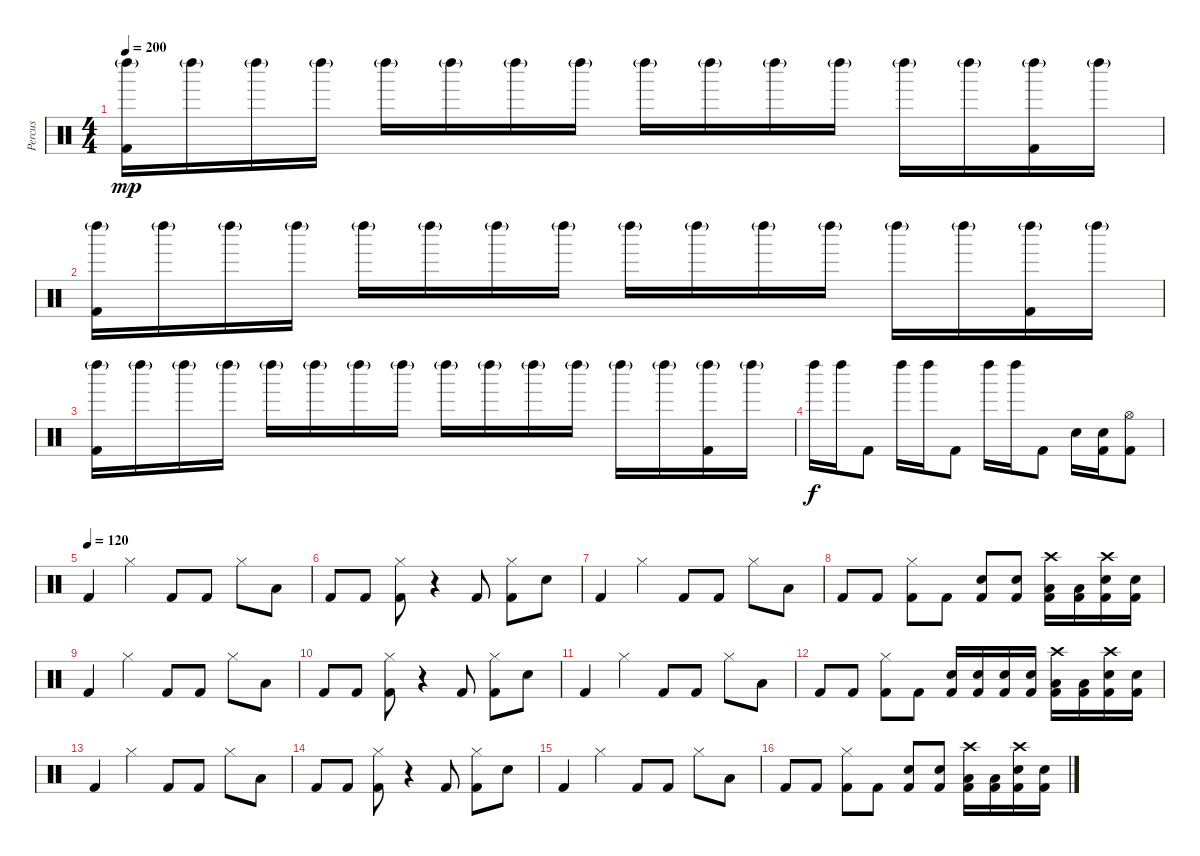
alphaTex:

\track ("Percus" "Percus") {instrument percussion}
\staff {score}
\articulation defaults
\ts (4 4)
\tempo 200
\tempo 120
\tempo 200
\clef neutral
\ks c
("Left Maraca (hit)"{g} "Kick (hit) 2").16{dy mp} "Left Maraca (hit)"{g}.16 "Left Maraca (hit)"{g}.16 "Left Maraca (hit)"{g}.16 "Left Maraca (hit)"{g}.16 "Left Maraca (hit)"{g}.16 "Left Maraca (hit)"{g}.16 "Left Maraca (hit)"{g}.16 "Left Maraca (hit)"{g}.16 "Left Maraca (hit)"{g}.16 "Left Maraca (hit)"{g}.16 "Left Maraca (hit)"{g}.16 "Left Maraca (hit)"{g}.16 "Left Maraca (hit)"{g}.16 ("Left Maraca (hit)"{g} "Kick (hit) 2").16 "Left Maraca (hit)"{g}.16 |
("Left Maraca (hit)"{g} "Kick (hit) 2").16 "Left Maraca (hit)"{g}.16 "Left Maraca (hit)"{g}.16 "Left Maraca (hit)"{g}.16 "Left Maraca (hit)"{g}.16 "Left Maraca (hit)"{g}.16 "Left Maraca (hit)"{g}.16 "Left Maraca (hit)"{g}.16 "Left Maraca (hit)"{g}.16 "Left Maraca (hit)"{g}.16 "Left Maraca (hit)"{g}.16 "Left Maraca (hit)"{g}.16 "Left Maraca (hit)"{g}.16 "Left Maraca (hit)"{g}.16 ("Left Maraca (hit)"{g} "Kick (hit) 2").16 "Left Maraca (hit)"{g}.16 |
("Left Maraca (hit)"{g} "Kick (hit) 2").16 "Left Maraca (hit)"{g}.16 "Left Maraca (hit)"{g}.16 "Left Maraca (hit)"{g}.16 "Left Maraca (hit)"{g}.16 "Left Maraca (hit)"{g}.16 "Left Maraca (hit)"{g}.16 "Left Maraca (hit)"{g}.16 "Left Maraca (hit)"{g}.16 "Left Maraca (hit)"{g}.16 "Left Maraca (hit)"{g}.16 "Left Maraca (hit)"{g}.16 "Left Maraca (hit)"{g}.16 "Left Maraca (hit)"{g}.16 ("Left Maraca (hit)"{g} "Kick (hit) 2").16 "Left Maraca (hit)"{g}.16 |
"Left Maraca (hit)".16{dy f} "Left Maraca (hit)".16 "Kick (hit) 2".8 "Left Maraca (hit)".16 "Left Maraca (hit)".16 "Kick (hit) 2".8 "Left Maraca (hit)".16 "Left Maraca (hit)".16 "Kick (hit) 2".8 "Hand Clap (hit)".16 ("Hand Clap (hit)" "Kick (hit) 2").16 ("Hi-Hat (open)" "Kick (hit) 2").8 |
\tempo (120)
"Kick (hit) 2".4 "Hi-Hat (closed)".4 "Kick (hit) 2".8 "Kick (hit) 2".8 "Hi-Hat (closed)".8 "Low Tom (hit)".8 |
"Kick (hit) 2".8 "Kick (hit) 2".8 ("Hi-Hat (closed)" "Kick (hit) 2").8 r.4 "Kick (hit) 2".8 ("Hi-Hat (closed)" "Kick (hit) 2").8 "Snare (hit) 2".8 |
"Kick (hit) 2".4 "Hi-Hat (closed)".4 "Kick (hit) 2".8 "Kick (hit) 2".8 "Hi-Hat (closed)".8 "Low Tom (hit)".8 |
"Kick (hit) 2".8 "Kick (hit) 2".8 ("Hi-Hat (closed)" "Kick (hit) 2").8 "Kick (hit) 2".8 ("Snare (hit) 2" "Kick (hit) 2").8 ("Snare (hit) 2" "Kick (hit) 2").8 ("Crash high (hit)" "Low Tom (hit)" "Kick (hit) 2").16 ("Low Tom (hit)" "Kick (hit) 2").16 ("Crash high (hit)" "Snare (hit) 2" "Kick (hit) 2").16 ("Snare (hit) 2" "Kick (hit) 2").16 |
"Kick (hit) 2".4 "Hi-Hat (closed)".4 "Kick (hit) 2".8 "Kick (hit) 2".8 "Hi-Hat (closed)".8 "Low Tom (hit)".8 |
"Kick (hit) 2".8 "Kick (hit) 2".8 ("Hi-Hat (closed)" "Kick (hit) 2").8 r.4 "Kick (hit) 2".8 ("Hi-Hat (closed)" "Kick (hit) 2").8 "Snare (hit) 2".8 |
"Kick (hit) 2".4 "Hi-Hat (closed)".4 "Kick (hit) 2".8 "Kick (hit) 2".8 "Hi-Hat (closed)".8 "Low Tom (hit)".8 |
"Kick (hit) 2".8 "Kick (hit) 2".8 ("Hi-Hat (closed)" "Kick (hit) 2").8 "Kick (hit) 2".8 ("Snare (hit) 2" "Kick (hit) 2").16 ("Snare (hit) 2" "Kick (hit) 2").16 ("Snare (hit) 2" "Kick (hit) 2").16 ("Snare (hit) 2" "Kick (hit) 2").16 ("Crash high (hit)" "Low Tom (hit)" "Kick (hit) 2").16 ("Low Tom (hit)" "Kick (hit) 2").16 ("Crash high (hit)" "Snare (hit) 2" "Kick (hit) 2").16 ("Snare (hit) 2" "Kick (hit) 2").16 |
"Kick (hit) 2".4 "Hi-Hat (closed)".4 "Kick (hit) 2".8 "Kick (hit) 2".8 "Hi-Hat (closed)".8 "Low Tom (hit)".8 |
"Kick (hit) 2".8 "Kick (hit) 2".8 ("Hi-Hat (closed)" "Kick (hit) 2").8 r.4 "Kick (hit) 2".8 ("Hi-Hat (closed)" "Kick (hit) 2").8 "Snare (hit) 2".8 |
"Kick (hit) 2".4 "Hi-Hat (closed)".4 "Kick (hit) 2".8 "Kick (hit) 2".8 "Hi-Hat (closed)".8 "Low Tom (hit)".8 |
"Kick (hit) 2".8 "Kick (hit) 2".8 ("Hi-Hat (closed)" "Kick (hit) 2").8 "Kick (hit) 2".8 ("Snare (hit) 2" "Kick (hit) 2").8 ("Snare (hit) 2" "Kick (hit) 2").8 ("Crash high (hit)" "Low Tom (hit)" "Kick (hit) 2").16 ("Low Tom (hit)" "Kick (hit) 2").16 ("Crash high (hit)" "Snare (hit) 2" "Kick (hit) 2").16 ("Snare (hit) 2" "Kick (hit) 2").16
